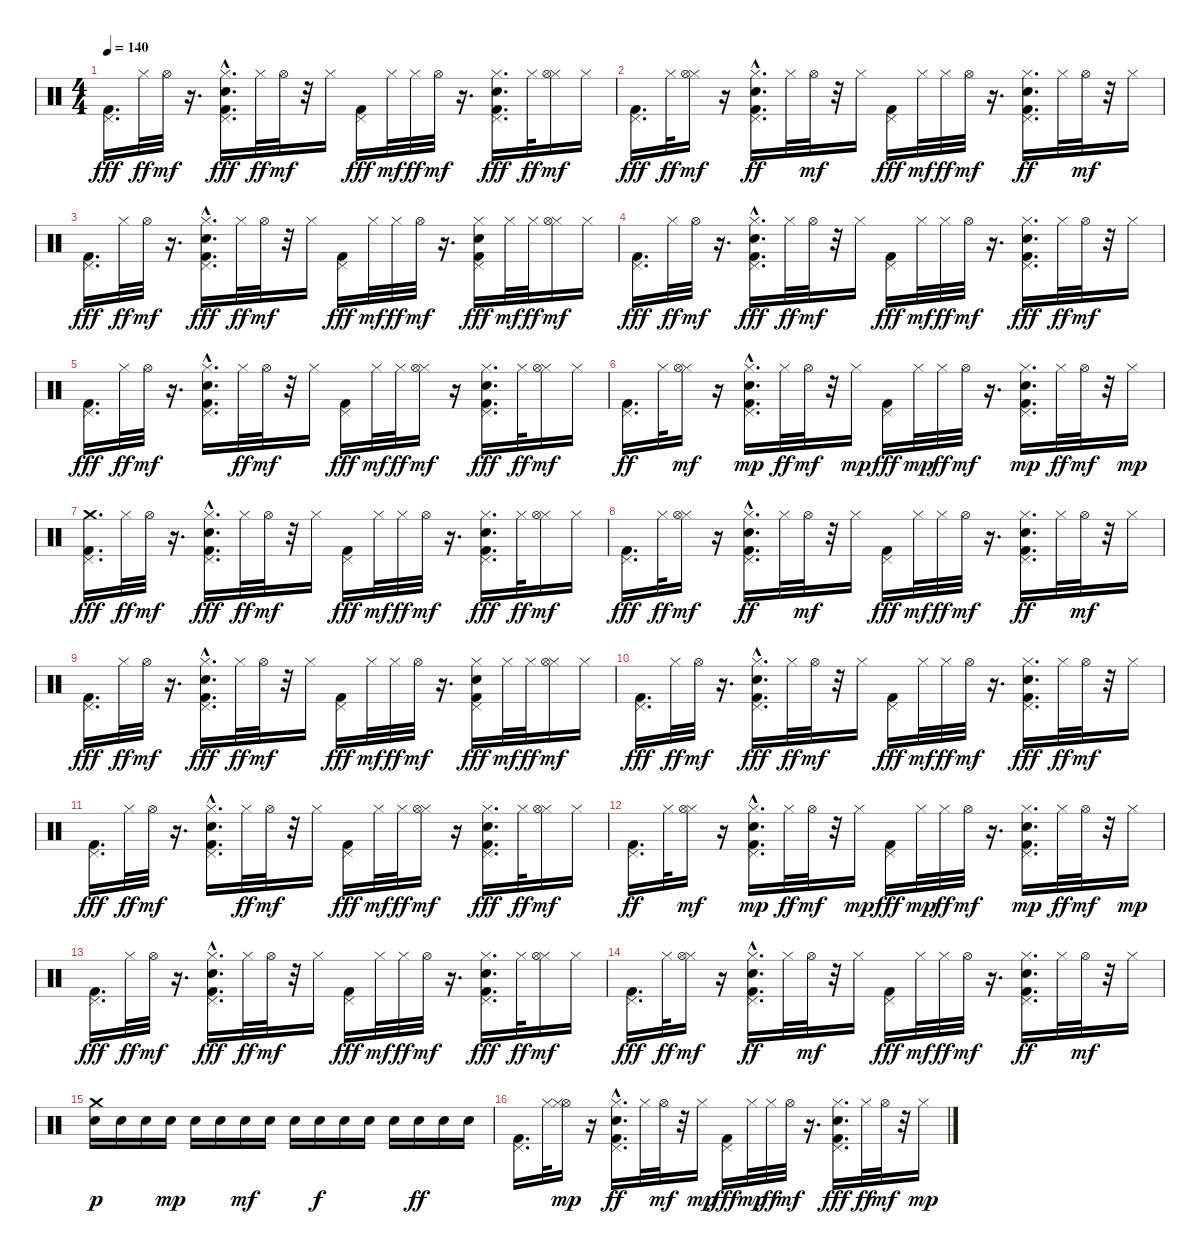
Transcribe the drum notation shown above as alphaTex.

\track "" {instrument percussion}
\staff {score}
\articulation defaults
\ts (4 4)
\tempo 140
\clef neutral
\ks c
("Pedal Hi-Hat (hit)" "Kick (hit) 2").16{d dy fff} "Hi-Hat (closed)".32{dy ff} "Hi-Hat (open)".32{dy mf} r.16{d} ("Hi-Hat (closed)" "Hand Clap (hit)"{hac} "Pedal Hi-Hat (hit)" "Kick (hit) 2").16{d dy fff} "Hi-Hat (closed)".32{dy ff} "Hi-Hat (open)".32{dy mf} r.32 "Hi-Hat (closed)".16 ("Pedal Hi-Hat (hit)" "Kick (hit) 2").16{dy fff} "Hi-Hat (closed)".32{dy mf} "Hi-Hat (closed)".32{dy ff} "Hi-Hat (open)".32{dy mf} r.16{d} ("Hi-Hat (closed)" "Hand Clap (hit)" "Pedal Hi-Hat (hit)" "Kick (hit) 2").16{d dy fff} "Hi-Hat (closed)".32{dy ff} ("Hi-Hat (closed)" "Hi-Hat (open)").16{dy mf} "Hi-Hat (closed)".16 |
("Pedal Hi-Hat (hit)" "Kick (hit) 2").16{d dy fff} "Hi-Hat (closed)".32{dy ff} ("Hi-Hat (closed)" "Hi-Hat (open)").16{dy mf} r.16 ("Hi-Hat (closed)" "Kick (hit) 2" "Pedal Hi-Hat (hit)" "Hand Clap (hit)"{hac}).16{d dy ff} "Hi-Hat (closed)".32 "Hi-Hat (open)".32{dy mf} r.32 "Hi-Hat (closed)".16 ("Pedal Hi-Hat (hit)" "Kick (hit) 2").16{dy fff} "Hi-Hat (closed)".32{dy mf} "Hi-Hat (closed)".32{dy ff} "Hi-Hat (open)".32{dy mf} r.16{d} ("Hi-Hat (closed)" "Kick (hit) 2" "Pedal Hi-Hat (hit)" "Hand Clap (hit)").16{d dy ff} "Hi-Hat (closed)".32 "Hi-Hat (open)".32{dy mf} r.32 "Hi-Hat (closed)".16 |
("Pedal Hi-Hat (hit)" "Kick (hit) 2").16{d dy fff} "Hi-Hat (closed)".32{dy ff} "Hi-Hat (open)".32{dy mf} r.16{d} ("Hi-Hat (closed)" "Hand Clap (hit)"{hac} "Pedal Hi-Hat (hit)" "Kick (hit) 2").16{d dy fff} "Hi-Hat (closed)".32{dy ff} "Hi-Hat (open)".32{dy mf} r.32 "Hi-Hat (closed)".16 ("Pedal Hi-Hat (hit)" "Kick (hit) 2").16{dy fff} "Hi-Hat (closed)".32{dy mf} "Hi-Hat (closed)".32{dy ff} "Hi-Hat (open)".32{dy mf} r.16{d} ("Hi-Hat (closed)" "Pedal Hi-Hat (hit)" "Kick (hit) 2" "Hand Clap (hit)").16{dy fff} "Hi-Hat (closed)".32{dy mf} "Hi-Hat (closed)".32{dy ff} ("Hi-Hat (closed)" "Hi-Hat (open)").16{dy mf} "Hi-Hat (closed)".16 |
("Pedal Hi-Hat (hit)" "Kick (hit) 2").16{d dy fff} "Hi-Hat (closed)".32{dy ff} "Hi-Hat (open)".32{dy mf} r.16{d} ("Pedal Hi-Hat (hit)" "Hand Clap (hit)"{hac} "Hi-Hat (closed)" "Kick (hit) 2").16{d dy fff} "Hi-Hat (closed)".32{dy ff} "Hi-Hat (open)".32{dy mf} r.32 "Hi-Hat (closed)".16 ("Pedal Hi-Hat (hit)" "Kick (hit) 2").16{dy fff} "Hi-Hat (closed)".32{dy mf} "Hi-Hat (closed)".32{dy ff} "Hi-Hat (open)".32{dy mf} r.16{d} ("Pedal Hi-Hat (hit)" "Hand Clap (hit)" "Hi-Hat (closed)" "Kick (hit) 2").16{d dy fff} "Hi-Hat (closed)".32{dy ff} "Hi-Hat (open)".32{dy mf} r.32 "Hi-Hat (closed)".16 |
("Pedal Hi-Hat (hit)" "Kick (hit) 2").16{d dy fff} "Hi-Hat (closed)".32{dy ff} "Hi-Hat (open)".32{dy mf} r.16{d} ("Pedal Hi-Hat (hit)" "Kick (hit) 2" "Hi-Hat (closed)" "Hand Clap (hit)"{hac}).16{d} "Hi-Hat (closed)".32{dy ff} "Hi-Hat (open)".32{dy mf} r.32 "Hi-Hat (closed)".16 ("Pedal Hi-Hat (hit)" "Kick (hit) 2").16{dy fff} "Hi-Hat (closed)".32{dy mf} "Hi-Hat (closed)".32{dy ff} ("Hi-Hat (closed)" "Hi-Hat (open)").16{dy mf} r.16 ("Pedal Hi-Hat (hit)" "Hand Clap (hit)" "Hi-Hat (closed)" "Kick (hit) 2").16{d dy fff} "Hi-Hat (closed)".32{dy ff} ("Hi-Hat (closed)" "Hi-Hat (open)").16{dy mf} "Hi-Hat (closed)".16 |
("Kick (hit) 2" "Pedal Hi-Hat (hit)").16{d dy ff} "Hi-Hat (closed)".32 ("Hi-Hat (closed)" "Hi-Hat (open)").16{dy mf} r.16 ("Pedal Hi-Hat (hit)" "Kick (hit) 2" "Hi-Hat (closed)" "Hand Clap (hit)"{hac}).16{d dy mp} "Hi-Hat (closed)".32{dy ff} "Hi-Hat (open)".32{dy mf} r.32 "Hi-Hat (closed)".16{dy mp} ("Pedal Hi-Hat (hit)" "Kick (hit) 2").16{dy fff} "Hi-Hat (closed)".32{dy mp} "Hi-Hat (closed)".32{dy ff} "Hi-Hat (open)".32{dy mf} r.16{d} ("Kick (hit) 2" "Pedal Hi-Hat (hit)" "Hand Clap (hit)" "Hi-Hat (closed)").16{d dy mp} "Hi-Hat (closed)".32{dy ff} "Hi-Hat (open)".32{dy mf} r.32 "Hi-Hat (closed)".16{dy mp} |
("Crash medium (hit)" "Pedal Hi-Hat (hit)" "Kick (hit) 2").16{d dy fff} "Hi-Hat (closed)".32{dy ff} "Hi-Hat (open)".32{dy mf} r.16{d} ("Hi-Hat (closed)" "Hand Clap (hit)"{hac} "Pedal Hi-Hat (hit)" "Kick (hit) 2").16{d dy fff} "Hi-Hat (closed)".32{dy ff} "Hi-Hat (open)".32{dy mf} r.32 "Hi-Hat (closed)".16 ("Pedal Hi-Hat (hit)" "Kick (hit) 2").16{dy fff} "Hi-Hat (closed)".32{dy mf} "Hi-Hat (closed)".32{dy ff} "Hi-Hat (open)".32{dy mf} r.16{d} ("Hi-Hat (closed)" "Hand Clap (hit)" "Pedal Hi-Hat (hit)" "Kick (hit) 2").16{d dy fff} "Hi-Hat (closed)".32{dy ff} ("Hi-Hat (closed)" "Hi-Hat (open)").16{dy mf} "Hi-Hat (closed)".16 |
("Pedal Hi-Hat (hit)" "Kick (hit) 2").16{d dy fff} "Hi-Hat (closed)".32{dy ff} ("Hi-Hat (closed)" "Hi-Hat (open)").16{dy mf} r.16 ("Hi-Hat (closed)" "Kick (hit) 2" "Pedal Hi-Hat (hit)" "Hand Clap (hit)"{hac}).16{d dy ff} "Hi-Hat (closed)".32 "Hi-Hat (open)".32{dy mf} r.32 "Hi-Hat (closed)".16 ("Pedal Hi-Hat (hit)" "Kick (hit) 2").16{dy fff} "Hi-Hat (closed)".32{dy mf} "Hi-Hat (closed)".32{dy ff} "Hi-Hat (open)".32{dy mf} r.16{d} ("Hi-Hat (closed)" "Kick (hit) 2" "Pedal Hi-Hat (hit)" "Hand Clap (hit)").16{d dy ff} "Hi-Hat (closed)".32 "Hi-Hat (open)".32{dy mf} r.32 "Hi-Hat (closed)".16 |
("Pedal Hi-Hat (hit)" "Kick (hit) 2").16{d dy fff} "Hi-Hat (closed)".32{dy ff} "Hi-Hat (open)".32{dy mf} r.16{d} ("Hi-Hat (closed)" "Hand Clap (hit)"{hac} "Pedal Hi-Hat (hit)" "Kick (hit) 2").16{d dy fff} "Hi-Hat (closed)".32{dy ff} "Hi-Hat (open)".32{dy mf} r.32 "Hi-Hat (closed)".16 ("Pedal Hi-Hat (hit)" "Kick (hit) 2").16{dy fff} "Hi-Hat (closed)".32{dy mf} "Hi-Hat (closed)".32{dy ff} "Hi-Hat (open)".32{dy mf} r.16{d} ("Hi-Hat (closed)" "Pedal Hi-Hat (hit)" "Kick (hit) 2" "Hand Clap (hit)").16{dy fff} "Hi-Hat (closed)".32{dy mf} "Hi-Hat (closed)".32{dy ff} ("Hi-Hat (closed)" "Hi-Hat (open)").16{dy mf} "Hi-Hat (closed)".16 |
("Pedal Hi-Hat (hit)" "Kick (hit) 2").16{d dy fff} "Hi-Hat (closed)".32{dy ff} "Hi-Hat (open)".32{dy mf} r.16{d} ("Pedal Hi-Hat (hit)" "Hand Clap (hit)"{hac} "Hi-Hat (closed)" "Kick (hit) 2").16{d dy fff} "Hi-Hat (closed)".32{dy ff} "Hi-Hat (open)".32{dy mf} r.32 "Hi-Hat (closed)".16 ("Pedal Hi-Hat (hit)" "Kick (hit) 2").16{dy fff} "Hi-Hat (closed)".32{dy mf} "Hi-Hat (closed)".32{dy ff} "Hi-Hat (open)".32{dy mf} r.16{d} ("Pedal Hi-Hat (hit)" "Hand Clap (hit)" "Hi-Hat (closed)" "Kick (hit) 2").16{d dy fff} "Hi-Hat (closed)".32{dy ff} "Hi-Hat (open)".32{dy mf} r.32 "Hi-Hat (closed)".16 |
("Pedal Hi-Hat (hit)" "Kick (hit) 2").16{d dy fff} "Hi-Hat (closed)".32{dy ff} "Hi-Hat (open)".32{dy mf} r.16{d} ("Pedal Hi-Hat (hit)" "Kick (hit) 2" "Hi-Hat (closed)" "Hand Clap (hit)"{hac}).16{d} "Hi-Hat (closed)".32{dy ff} "Hi-Hat (open)".32{dy mf} r.32 "Hi-Hat (closed)".16 ("Pedal Hi-Hat (hit)" "Kick (hit) 2").16{dy fff} "Hi-Hat (closed)".32{dy mf} "Hi-Hat (closed)".32{dy ff} ("Hi-Hat (closed)" "Hi-Hat (open)").16{dy mf} r.16 ("Pedal Hi-Hat (hit)" "Hand Clap (hit)" "Hi-Hat (closed)" "Kick (hit) 2").16{d dy fff} "Hi-Hat (closed)".32{dy ff} ("Hi-Hat (closed)" "Hi-Hat (open)").16{dy mf} "Hi-Hat (closed)".16 |
("Kick (hit) 2" "Pedal Hi-Hat (hit)").16{d dy ff} "Hi-Hat (closed)".32 ("Hi-Hat (closed)" "Hi-Hat (open)").16{dy mf} r.16 ("Pedal Hi-Hat (hit)" "Kick (hit) 2" "Hi-Hat (closed)" "Hand Clap (hit)"{hac}).16{d dy mp} "Hi-Hat (closed)".32{dy ff} "Hi-Hat (open)".32{dy mf} r.32 "Hi-Hat (closed)".16{dy mp} ("Pedal Hi-Hat (hit)" "Kick (hit) 2").16{dy fff} "Hi-Hat (closed)".32{dy mp} "Hi-Hat (closed)".32{dy ff} "Hi-Hat (open)".32{dy mf} r.16{d} ("Kick (hit) 2" "Pedal Hi-Hat (hit)" "Hand Clap (hit)" "Hi-Hat (closed)").16{d dy mp} "Hi-Hat (closed)".32{dy ff} "Hi-Hat (open)".32{dy mf} r.32 "Hi-Hat (closed)".16{dy mp} |
("Pedal Hi-Hat (hit)" "Kick (hit) 2").16{d dy fff} "Hi-Hat (closed)".32{dy ff} "Hi-Hat (open)".32{dy mf} r.16{d} ("Hi-Hat (closed)" "Hand Clap (hit)"{hac} "Pedal Hi-Hat (hit)" "Kick (hit) 2").16{d dy fff} "Hi-Hat (closed)".32{dy ff} "Hi-Hat (open)".32{dy mf} r.32 "Hi-Hat (closed)".16 ("Pedal Hi-Hat (hit)" "Kick (hit) 2").16{dy fff} "Hi-Hat (closed)".32{dy mf} "Hi-Hat (closed)".32{dy ff} "Hi-Hat (open)".32{dy mf} r.16{d} ("Hi-Hat (closed)" "Hand Clap (hit)" "Pedal Hi-Hat (hit)" "Kick (hit) 2").16{d dy fff} "Hi-Hat (closed)".32{dy ff} ("Hi-Hat (closed)" "Hi-Hat (open)").16{dy mf} "Hi-Hat (closed)".16 |
("Pedal Hi-Hat (hit)" "Kick (hit) 2").16{d dy fff} "Hi-Hat (closed)".32{dy ff} ("Hi-Hat (closed)" "Hi-Hat (open)").16{dy mf} r.16 ("Hi-Hat (closed)" "Kick (hit) 2" "Pedal Hi-Hat (hit)" "Hand Clap (hit)"{hac}).16{d dy ff} "Hi-Hat (closed)".32 "Hi-Hat (open)".32{dy mf} r.32 "Hi-Hat (closed)".16 ("Pedal Hi-Hat (hit)" "Kick (hit) 2").16{dy fff} "Hi-Hat (closed)".32{dy mf} "Hi-Hat (closed)".32{dy ff} "Hi-Hat (open)".32{dy mf} r.16{d} ("Hi-Hat (closed)" "Kick (hit) 2" "Pedal Hi-Hat (hit)" "Hand Clap (hit)").16{d dy ff} "Hi-Hat (closed)".32 "Hi-Hat (open)".32{dy mf} r.32 "Hi-Hat (closed)".16 |
("Crash medium (hit)" "Electric Snare (hit)").16{dy p} "Electric Snare (hit)".16 "Electric Snare (hit)".16 "Electric Snare (hit)".16{dy mp} "Electric Snare (hit)".16 "Electric Snare (hit)".16 "Electric Snare (hit)".16{dy mf} "Electric Snare (hit)".16 "Electric Snare (hit)".16 "Electric Snare (hit)".16{dy f} "Electric Snare (hit)".16 "Electric Snare (hit)".16 "Electric Snare (hit)".16 "Electric Snare (hit)".16{dy ff} "Electric Snare (hit)".16 "Electric Snare (hit)".16 |
("Kick (hit) 2" "Pedal Hi-Hat (hit)").16{d} "Hi-Hat (closed)".32 ("Hi-Hat (open)" "Hi-Hat (closed)").16{dy mp} r.16 ("Kick (hit) 2" "Hi-Hat (closed)" "Hand Clap (hit)"{hac} "Pedal Hi-Hat (hit)").16{d dy ff} "Hi-Hat (closed)".32 "Hi-Hat (open)".32{dy mf} r.32 "Hi-Hat (closed)".16{dy mp} ("Pedal Hi-Hat (hit)" "Kick (hit) 2").16{dy fff} "Hi-Hat (closed)".32{dy mp} "Hi-Hat (closed)".32{dy ff} "Hi-Hat (open)".32{dy mf} r.16{d} ("Pedal Hi-Hat (hit)" "Hand Clap (hit)" "Hi-Hat (closed)" "Kick (hit) 2").16{d dy fff} "Hi-Hat (closed)".32{dy ff} "Hi-Hat (open)".32{dy mf} r.32 "Hi-Hat (closed)".16{dy mp}
